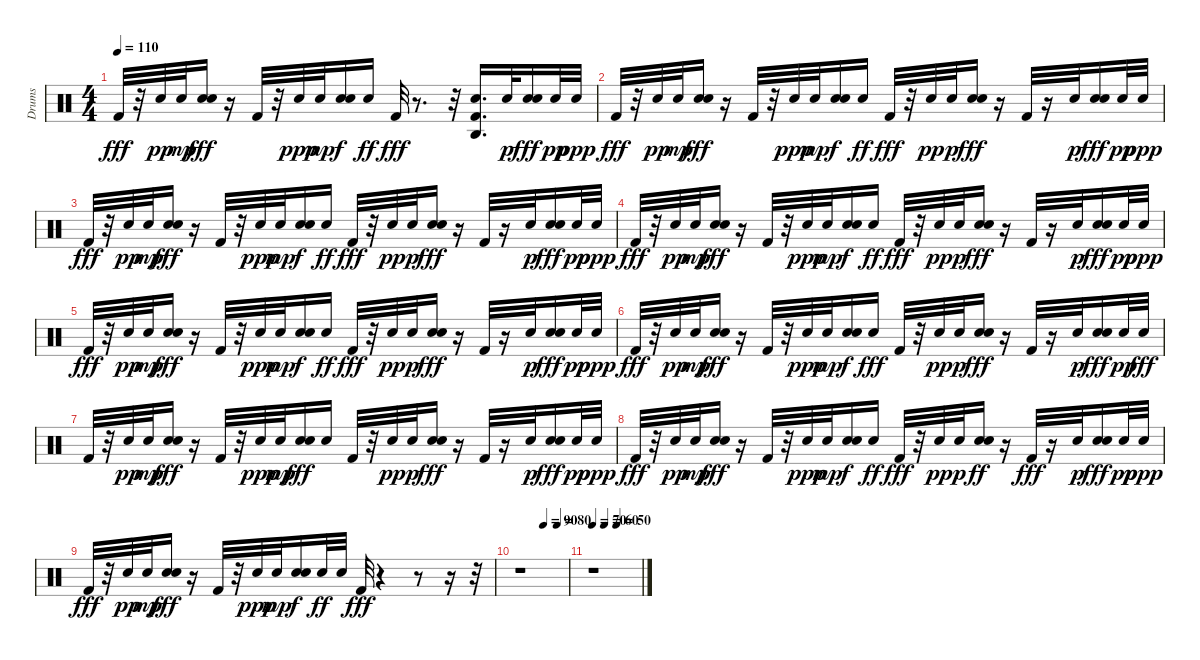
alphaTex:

\track ("Drums" "Drums") {instrument percussion}
\staff {score}
\articulation defaults
\ts (4 4)
\tempo 110
\clef neutral
\ks c "Kick (hit) 2".32{dy fff}
r.32 "Electric Snare (hit)".32{dy pp} "Electric Snare (hit)".32{dy mp} ("Snare (hit) 2" "Electric Snare (hit)").16{dy fff} r.16 "Kick (hit) 2".32 r.32 "Electric Snare (hit)".32{dy ppp} "Electric Snare (hit)".32{dy mp} ("Snare (hit) 2" "Electric Snare (hit)").16{dy f} "Electric Snare (hit)".16{dy ff} "Kick (hit) 2".32{dy fff} r.8{d} r.32 ("Agogo high (hit)" "Kick (hit) 2" "Snare (hit) 2").16{d} "Electric Snare (hit)".32{dy p} ("Snare (hit) 2" "Electric Snare (hit)").16{dy fff} "Electric Snare (hit)".32{dy pp} "Electric Snare (hit)".32{dy ppp} |
"Kick (hit) 2".32{dy fff} r.32 "Electric Snare (hit)".32{dy pp} "Electric Snare (hit)".32{dy mp} ("Snare (hit) 2" "Electric Snare (hit)").16{dy fff} r.16 "Kick (hit) 2".32 r.32 "Electric Snare (hit)".32{dy ppp} "Electric Snare (hit)".32{dy mp} ("Snare (hit) 2" "Electric Snare (hit)").16{dy f} "Electric Snare (hit)".16{dy ff} "Kick (hit) 2".32{dy fff} r.32 "Electric Snare (hit)".32{dy pp} "Electric Snare (hit)".32{dy p} ("Snare (hit) 2" "Electric Snare (hit)").16{dy fff} r.16 "Kick (hit) 2".32 r.16 "Electric Snare (hit)".32{dy p} ("Snare (hit) 2" "Electric Snare (hit)").16{dy fff} "Electric Snare (hit)".32{dy pp} "Electric Snare (hit)".32{dy ppp} |
"Kick (hit) 2".32{dy fff} r.32 "Electric Snare (hit)".32{dy pp} "Electric Snare (hit)".32{dy mp} ("Snare (hit) 2" "Electric Snare (hit)").16{dy fff} r.16 "Kick (hit) 2".32 r.32 "Electric Snare (hit)".32{dy ppp} "Electric Snare (hit)".32{dy mp} ("Snare (hit) 2" "Electric Snare (hit)").16{dy f} "Electric Snare (hit)".16{dy ff} "Kick (hit) 2".32{dy fff} r.32 "Electric Snare (hit)".32{dy pp} "Electric Snare (hit)".32{dy p} ("Snare (hit) 2" "Electric Snare (hit)").16{dy fff} r.16 "Kick (hit) 2".32 r.16 "Electric Snare (hit)".32{dy p} ("Snare (hit) 2" "Electric Snare (hit)").16{dy fff} "Electric Snare (hit)".32{dy pp} "Electric Snare (hit)".32{dy ppp} |
"Kick (hit) 2".32{dy fff} r.32 "Electric Snare (hit)".32{dy pp} "Electric Snare (hit)".32{dy mp} ("Snare (hit) 2" "Electric Snare (hit)").16{dy fff} r.16 "Kick (hit) 2".32 r.32 "Electric Snare (hit)".32{dy ppp} "Electric Snare (hit)".32{dy mp} ("Snare (hit) 2" "Electric Snare (hit)").16{dy f} "Electric Snare (hit)".16{dy ff} "Kick (hit) 2".32{dy fff} r.32 "Electric Snare (hit)".32{dy pp} "Electric Snare (hit)".32{dy p} ("Snare (hit) 2" "Electric Snare (hit)").16{dy fff} r.16 "Kick (hit) 2".32 r.16 "Electric Snare (hit)".32{dy p} ("Snare (hit) 2" "Electric Snare (hit)").16{dy fff} "Electric Snare (hit)".32{dy pp} "Electric Snare (hit)".32{dy ppp} |
"Kick (hit) 2".32{dy fff} r.32 "Electric Snare (hit)".32{dy pp} "Electric Snare (hit)".32{dy mp} ("Snare (hit) 2" "Electric Snare (hit)").16{dy fff} r.16 "Kick (hit) 2".32 r.32 "Electric Snare (hit)".32{dy ppp} "Electric Snare (hit)".32{dy mp} ("Snare (hit) 2" "Electric Snare (hit)").16{dy f} "Electric Snare (hit)".16{dy ff} "Kick (hit) 2".32{dy fff} r.32 "Electric Snare (hit)".32{dy pp} "Electric Snare (hit)".32{dy p} ("Snare (hit) 2" "Electric Snare (hit)").16{dy fff} r.16 "Kick (hit) 2".32 r.16 "Electric Snare (hit)".32{dy p} ("Snare (hit) 2" "Electric Snare (hit)").16{dy fff} "Electric Snare (hit)".32{dy pp} "Electric Snare (hit)".32{dy ppp} |
"Kick (hit) 2".32{dy fff} r.32 "Electric Snare (hit)".32{dy pp} "Electric Snare (hit)".32{dy mp} ("Snare (hit) 2" "Electric Snare (hit)").16{dy fff} r.16 "Kick (hit) 2".32 r.32 "Electric Snare (hit)".32{dy ppp} "Electric Snare (hit)".32{dy mp} ("Snare (hit) 2" "Electric Snare (hit)").16{dy f} "Electric Snare (hit)".16{dy fff} "Kick (hit) 2".32 r.32 "Electric Snare (hit)".32{dy pp} "Electric Snare (hit)".32{dy p} ("Snare (hit) 2" "Electric Snare (hit)").16{dy fff} r.16 "Kick (hit) 2".32 r.16 "Electric Snare (hit)".32{dy p} ("Snare (hit) 2" "Electric Snare (hit)").16{dy fff} "Electric Snare (hit)".32{dy pp} "Electric Snare (hit)".32{dy fff} |
"Kick (hit) 2".32 r.32 "Electric Snare (hit)".32{dy pp} "Electric Snare (hit)".32{dy mp} ("Snare (hit) 2" "Electric Snare (hit)").16{dy fff} r.16 "Kick (hit) 2".32 r.32 "Electric Snare (hit)".32{dy ppp} "Electric Snare (hit)".32{dy mp} ("Snare (hit) 2" "Electric Snare (hit)").16{dy fff} "Electric Snare (hit)".16 "Kick (hit) 2".32 r.32 "Electric Snare (hit)".32{dy pp} "Electric Snare (hit)".32{dy p} ("Snare (hit) 2" "Electric Snare (hit)").16{dy fff} r.16 "Kick (hit) 2".32 r.16 "Electric Snare (hit)".32{dy p} ("Snare (hit) 2" "Electric Snare (hit)").16{dy fff} "Electric Snare (hit)".32{dy pp} "Electric Snare (hit)".32{dy ppp} |
"Kick (hit) 2".32{dy fff} r.32 "Electric Snare (hit)".32{dy pp} "Electric Snare (hit)".32{dy mp} ("Snare (hit) 2" "Electric Snare (hit)").16{dy fff} r.16 "Kick (hit) 2".32 r.32 "Electric Snare (hit)".32{dy ppp} "Electric Snare (hit)".32{dy mp} ("Snare (hit) 2" "Electric Snare (hit)").16{dy f} "Electric Snare (hit)".16{dy ff} "Kick (hit) 2".32{dy fff} r.32 "Electric Snare (hit)".32{dy pp} "Electric Snare (hit)".32{dy p} ("Snare (hit) 2" "Electric Snare (hit)").16{dy ff} r.16 "Kick (hit) 2".32{dy fff} r.16 "Electric Snare (hit)".32{dy p} ("Snare (hit) 2" "Electric Snare (hit)").16{dy fff} "Electric Snare (hit)".32{dy pp} "Electric Snare (hit)".32{dy ppp} |
"Kick (hit) 2".32{dy fff} r.32 "Electric Snare (hit)".32{dy pp} "Electric Snare (hit)".32{dy mp} ("Snare (hit) 2" "Electric Snare (hit)").16{dy fff} r.16 "Kick (hit) 2".32 r.32 "Electric Snare (hit)".32{dy ppp} "Electric Snare (hit)".32{dy mp} ("Snare (hit) 2" "Electric Snare (hit)").16{dy f} "Electric Snare (hit)".32{dy ff} "Snare (hit) 2".32 "Kick (hit) 2".32{dy fff} r.4 r.8 r.16 r.32 |
\tempo (90 0.5)
\tempo (80 0.78125)
r.1 |
\tempo 70
\tempo (60 0.25)
\tempo (50 0.5)
r.1
